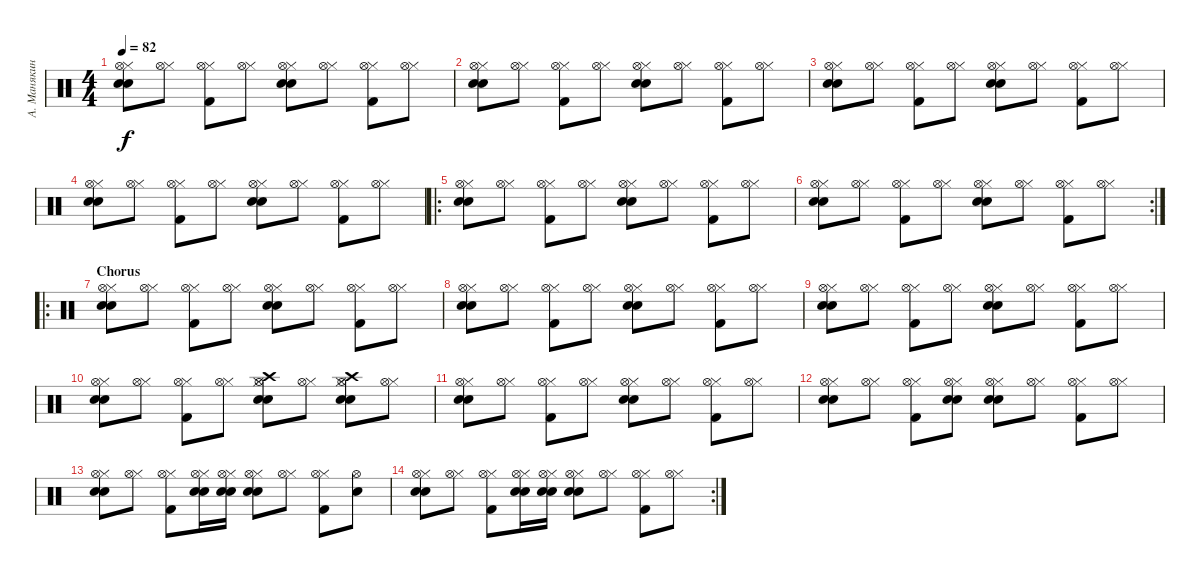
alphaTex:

\track ("А. Манякин" "А. Манякин") {instrument percussion}
\staff {score}
\articulation defaults
\ts (4 4)
\tempo 82
\clef neutral
\ks c
("Snare (hit) 2" "Hi-Hat (closed)" "Hi-Hat (open)" "Electric Snare (hit)").8{dy f} ("Hi-Hat (closed)" "Hi-Hat (open)").8 ("Hi-Hat (closed)" "Hi-Hat (open)" "Kick (hit) 2").8 ("Hi-Hat (closed)" "Hi-Hat (open)").8 ("Snare (hit) 2" "Hi-Hat (closed)" "Hi-Hat (open)" "Electric Snare (hit)").8 ("Hi-Hat (closed)" "Hi-Hat (open)").8 ("Hi-Hat (closed)" "Hi-Hat (open)" "Kick (hit) 2").8 ("Hi-Hat (closed)" "Hi-Hat (open)").8 |
("Snare (hit) 2" "Hi-Hat (closed)" "Hi-Hat (open)" "Electric Snare (hit)").8 ("Hi-Hat (closed)" "Hi-Hat (open)").8 ("Hi-Hat (closed)" "Hi-Hat (open)" "Kick (hit) 2").8 ("Hi-Hat (closed)" "Hi-Hat (open)").8 ("Snare (hit) 2" "Hi-Hat (closed)" "Hi-Hat (open)" "Electric Snare (hit)").8 ("Hi-Hat (closed)" "Hi-Hat (open)").8 ("Hi-Hat (closed)" "Hi-Hat (open)" "Kick (hit) 2").8 ("Hi-Hat (closed)" "Hi-Hat (open)").8 |
("Snare (hit) 2" "Hi-Hat (closed)" "Hi-Hat (open)" "Electric Snare (hit)").8 ("Hi-Hat (closed)" "Hi-Hat (open)").8 ("Hi-Hat (closed)" "Hi-Hat (open)" "Kick (hit) 2").8 ("Hi-Hat (closed)" "Hi-Hat (open)").8 ("Snare (hit) 2" "Hi-Hat (closed)" "Hi-Hat (open)" "Electric Snare (hit)").8 ("Hi-Hat (closed)" "Hi-Hat (open)").8 ("Hi-Hat (closed)" "Hi-Hat (open)" "Kick (hit) 2").8 ("Hi-Hat (closed)" "Hi-Hat (open)").8 |
("Snare (hit) 2" "Hi-Hat (closed)" "Hi-Hat (open)" "Electric Snare (hit)").8 ("Hi-Hat (closed)" "Hi-Hat (open)").8 ("Hi-Hat (closed)" "Hi-Hat (open)" "Kick (hit) 2").8 ("Hi-Hat (closed)" "Hi-Hat (open)").8 ("Snare (hit) 2" "Hi-Hat (closed)" "Hi-Hat (open)" "Electric Snare (hit)").8 ("Hi-Hat (closed)" "Hi-Hat (open)").8 ("Hi-Hat (closed)" "Hi-Hat (open)" "Kick (hit) 2").8 ("Hi-Hat (closed)" "Hi-Hat (open)").8 |
\ro
("Snare (hit) 2" "Hi-Hat (closed)" "Hi-Hat (open)" "Electric Snare (hit)").8 ("Hi-Hat (closed)" "Hi-Hat (open)").8 ("Hi-Hat (closed)" "Hi-Hat (open)" "Kick (hit) 2").8 ("Hi-Hat (closed)" "Hi-Hat (open)").8 ("Snare (hit) 2" "Hi-Hat (closed)" "Hi-Hat (open)" "Electric Snare (hit)").8 ("Hi-Hat (closed)" "Hi-Hat (open)").8 ("Hi-Hat (closed)" "Hi-Hat (open)" "Kick (hit) 2").8 ("Hi-Hat (closed)" "Hi-Hat (open)").8 |
\rc 2
\section ("" "")
("Snare (hit) 2" "Hi-Hat (closed)" "Hi-Hat (open)" "Electric Snare (hit)").8 ("Hi-Hat (closed)" "Hi-Hat (open)").8 ("Hi-Hat (closed)" "Hi-Hat (open)" "Kick (hit) 2").8 ("Hi-Hat (closed)" "Hi-Hat (open)").8 ("Snare (hit) 2" "Hi-Hat (closed)" "Hi-Hat (open)" "Electric Snare (hit)").8 ("Hi-Hat (closed)" "Hi-Hat (open)").8 ("Hi-Hat (closed)" "Hi-Hat (open)" "Kick (hit) 2").8 ("Hi-Hat (closed)" "Hi-Hat (open)").8 |
\ro
\section ("" "Chorus")
("Snare (hit) 2" "Hi-Hat (closed)" "Electric Snare (hit)" "Hi-Hat (open)").8 ("Hi-Hat (closed)" "Hi-Hat (open)").8 ("Hi-Hat (closed)" "Hi-Hat (open)" "Kick (hit) 2").8 ("Hi-Hat (closed)" "Hi-Hat (open)").8 ("Snare (hit) 2" "Hi-Hat (closed)" "Electric Snare (hit)" "Hi-Hat (open)").8 ("Hi-Hat (closed)" "Hi-Hat (open)").8 ("Hi-Hat (closed)" "Hi-Hat (open)" "Kick (hit) 2").8 ("Hi-Hat (closed)" "Hi-Hat (open)").8 |
("Snare (hit) 2" "Hi-Hat (closed)" "Electric Snare (hit)" "Hi-Hat (open)").8 ("Hi-Hat (closed)" "Hi-Hat (open)").8 ("Hi-Hat (closed)" "Hi-Hat (open)" "Kick (hit) 2").8 ("Hi-Hat (closed)" "Hi-Hat (open)").8 ("Snare (hit) 2" "Hi-Hat (closed)" "Electric Snare (hit)" "Hi-Hat (open)").8 ("Hi-Hat (closed)" "Hi-Hat (open)").8 ("Hi-Hat (closed)" "Hi-Hat (open)" "Kick (hit) 2").8 ("Hi-Hat (closed)" "Hi-Hat (open)").8 |
("Snare (hit) 2" "Hi-Hat (closed)" "Electric Snare (hit)" "Hi-Hat (open)").8 ("Hi-Hat (closed)" "Hi-Hat (open)").8 ("Hi-Hat (closed)" "Hi-Hat (open)" "Kick (hit) 2").8 ("Hi-Hat (closed)" "Hi-Hat (open)").8 ("Snare (hit) 2" "Hi-Hat (closed)" "Electric Snare (hit)" "Hi-Hat (open)").8 ("Hi-Hat (closed)" "Hi-Hat (open)").8 ("Hi-Hat (closed)" "Hi-Hat (open)" "Kick (hit) 2").8 ("Hi-Hat (closed)" "Hi-Hat (open)").8 |
("Snare (hit) 2" "Hi-Hat (closed)" "Electric Snare (hit)" "Hi-Hat (open)").8 ("Hi-Hat (closed)" "Hi-Hat (open)").8 ("Hi-Hat (closed)" "Hi-Hat (open)" "Kick (hit) 2").8 ("Hi-Hat (closed)" "Hi-Hat (open)").8 ("Snare (hit) 2" "Hi-Hat (closed)" "Electric Snare (hit)" "Hi-Hat (open)" "Crash high (hit)").8 ("Hi-Hat (closed)" "Hi-Hat (open)").8 ("Snare (hit) 2" "Hi-Hat (closed)" "Electric Snare (hit)" "Hi-Hat (open)" "Crash high (hit)").8 ("Hi-Hat (closed)" "Hi-Hat (open)").8 |
("Snare (hit) 2" "Hi-Hat (closed)" "Electric Snare (hit)" "Hi-Hat (open)").8 ("Hi-Hat (closed)" "Hi-Hat (open)").8 ("Hi-Hat (closed)" "Hi-Hat (open)" "Kick (hit) 2").8 ("Hi-Hat (closed)" "Hi-Hat (open)").8 ("Snare (hit) 2" "Hi-Hat (closed)" "Electric Snare (hit)" "Hi-Hat (open)").8 ("Hi-Hat (closed)" "Hi-Hat (open)").8 ("Hi-Hat (closed)" "Hi-Hat (open)" "Kick (hit) 2").8 ("Hi-Hat (closed)" "Hi-Hat (open)").8 |
("Snare (hit) 2" "Hi-Hat (closed)" "Electric Snare (hit)" "Hi-Hat (open)").8 ("Hi-Hat (closed)" "Hi-Hat (open)").8 ("Hi-Hat (closed)" "Hi-Hat (open)" "Kick (hit) 2").8 ("Snare (hit) 2" "Hi-Hat (closed)" "Electric Snare (hit)" "Hi-Hat (open)").8 ("Snare (hit) 2" "Hi-Hat (closed)" "Electric Snare (hit)" "Hi-Hat (open)").8 ("Hi-Hat (closed)" "Hi-Hat (open)").8 ("Hi-Hat (closed)" "Hi-Hat (open)" "Kick (hit) 2").8 ("Hi-Hat (closed)" "Hi-Hat (open)").8 |
("Snare (hit) 2" "Hi-Hat (closed)" "Electric Snare (hit)" "Hi-Hat (open)").8 ("Hi-Hat (closed)" "Hi-Hat (open)").8 ("Hi-Hat (closed)" "Hi-Hat (open)" "Kick (hit) 2").8 ("Snare (hit) 2" "Hi-Hat (closed)" "Electric Snare (hit)" "Hi-Hat (open)").16 ("Snare (hit) 2" "Hi-Hat (closed)" "Electric Snare (hit)" "Hi-Hat (open)").16 ("Snare (hit) 2" "Hi-Hat (closed)" "Electric Snare (hit)" "Hi-Hat (open)").8 ("Hi-Hat (closed)" "Hi-Hat (open)").8 ("Hi-Hat (closed)" "Hi-Hat (open)" "Kick (hit) 2").8 ("Snare (hit)" "Hi-Hat (open)").8 |
\rc 2
("Snare (hit) 2" "Hi-Hat (closed)" "Electric Snare (hit)" "Hi-Hat (open)").8 ("Hi-Hat (closed)" "Hi-Hat (open)").8 ("Hi-Hat (closed)" "Hi-Hat (open)" "Kick (hit) 2").8 ("Snare (hit) 2" "Hi-Hat (closed)" "Electric Snare (hit)" "Hi-Hat (open)").16 ("Snare (hit) 2" "Hi-Hat (closed)" "Electric Snare (hit)" "Hi-Hat (open)").16 ("Snare (hit) 2" "Hi-Hat (closed)" "Electric Snare (hit)" "Hi-Hat (open)").8 ("Hi-Hat (closed)" "Hi-Hat (open)").8 ("Hi-Hat (closed)" "Hi-Hat (open)" "Kick (hit) 2").8 ("Hi-Hat (closed)" "Hi-Hat (open)").8
